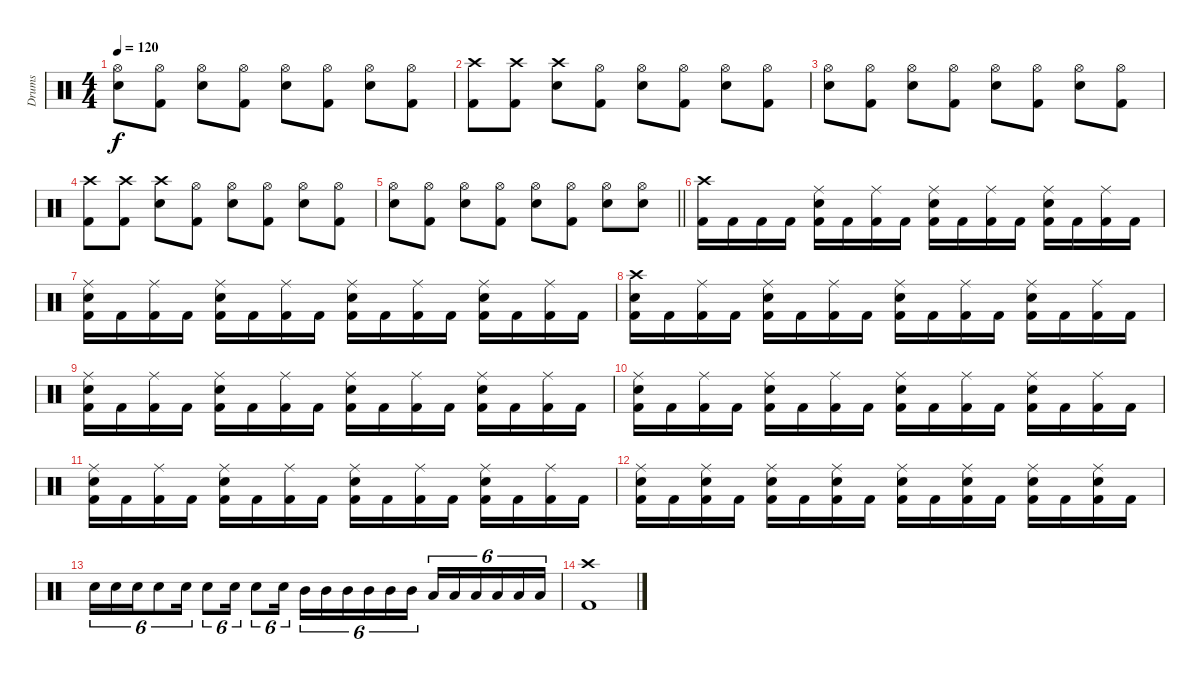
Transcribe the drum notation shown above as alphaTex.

\track ("Drums" "Drums") {instrument percussion}
\staff {score}
\articulation defaults
\ts (4 4)
\tempo 120
\clef neutral
\ks c
("Hi-Hat (open)" "Snare (hit) 2").8{dy f} ("Hi-Hat (open)" "Kick (hit) 2").8 ("Hi-Hat (open)" "Snare (hit) 2").8 ("Hi-Hat (open)" "Kick (hit) 2").8 ("Hi-Hat (open)" "Snare (hit) 2").8 ("Hi-Hat (open)" "Kick (hit) 2").8 ("Hi-Hat (open)" "Snare (hit) 2").8 ("Hi-Hat (open)" "Kick (hit) 2").8 |
("Crash high (hit)" "Kick (hit) 2").8 ("Crash high (hit)" "Kick (hit) 2").8 ("Crash high (hit)" "Snare (hit) 2").8 ("Hi-Hat (open)" "Kick (hit) 2").8 ("Hi-Hat (open)" "Snare (hit) 2").8 ("Hi-Hat (open)" "Kick (hit) 2").8 ("Hi-Hat (open)" "Snare (hit) 2").8 ("Hi-Hat (open)" "Kick (hit) 2").8 |
("Hi-Hat (open)" "Snare (hit) 2").8 ("Hi-Hat (open)" "Kick (hit) 2").8 ("Hi-Hat (open)" "Snare (hit) 2").8 ("Hi-Hat (open)" "Kick (hit) 2").8 ("Hi-Hat (open)" "Snare (hit) 2").8 ("Hi-Hat (open)" "Kick (hit) 2").8 ("Hi-Hat (open)" "Snare (hit) 2").8 ("Hi-Hat (open)" "Kick (hit) 2").8 |
("Crash high (hit)" "Kick (hit) 2").8 ("Crash high (hit)" "Kick (hit) 2").8 ("Crash high (hit)" "Snare (hit) 2").8 ("Hi-Hat (open)" "Kick (hit) 2").8 ("Hi-Hat (open)" "Snare (hit) 2").8 ("Hi-Hat (open)" "Kick (hit) 2").8 ("Hi-Hat (open)" "Snare (hit) 2").8 ("Hi-Hat (open)" "Kick (hit) 2").8 |
\barLineRight lightlight
("Hi-Hat (open)" "Snare (hit) 2").8 ("Hi-Hat (open)" "Kick (hit) 2").8 ("Hi-Hat (open)" "Snare (hit) 2").8 ("Hi-Hat (open)" "Kick (hit) 2").8 ("Hi-Hat (open)" "Snare (hit) 2").8 ("Hi-Hat (open)" "Kick (hit) 2").8 ("Hi-Hat (open)" "Snare (hit) 2").8 ("Hi-Hat (open)" "Snare (hit) 2").8 |
("Crash high (hit)" "Kick (hit) 2").16 "Kick (hit) 2".16 "Kick (hit) 2".16 "Kick (hit) 2".16 ("Ride (middle)" "Snare (hit) 2" "Kick (hit) 2").16 "Kick (hit) 2".16 ("Ride (middle)" "Kick (hit) 2").16 "Kick (hit) 2".16 ("Ride (middle)" "Snare (hit) 2" "Kick (hit) 2").16 "Kick (hit) 2".16 ("Ride (middle)" "Kick (hit) 2").16 "Kick (hit) 2".16 ("Ride (middle)" "Snare (hit) 2" "Kick (hit) 2").16 "Kick (hit) 2".16 ("Ride (middle)" "Kick (hit) 2").16 "Kick (hit) 2".16 |
("Ride (middle)" "Snare (hit) 2" "Kick (hit) 2").16 "Kick (hit) 2".16 ("Ride (middle)" "Kick (hit) 2").16 "Kick (hit) 2".16 ("Ride (middle)" "Snare (hit) 2" "Kick (hit) 2").16 "Kick (hit) 2".16 ("Ride (middle)" "Kick (hit) 2").16 "Kick (hit) 2".16 ("Ride (middle)" "Snare (hit) 2" "Kick (hit) 2").16 "Kick (hit) 2".16 ("Ride (middle)" "Kick (hit) 2").16 "Kick (hit) 2".16 ("Ride (middle)" "Snare (hit) 2" "Kick (hit) 2").16 "Kick (hit) 2".16 ("Ride (middle)" "Kick (hit) 2").16 "Kick (hit) 2".16 |
("Crash high (hit)" "Snare (hit) 2" "Kick (hit) 2").16 "Kick (hit) 2".16 ("Ride (middle)" "Kick (hit) 2").16 "Kick (hit) 2".16 ("Ride (middle)" "Snare (hit) 2" "Kick (hit) 2").16 "Kick (hit) 2".16 ("Ride (middle)" "Kick (hit) 2").16 "Kick (hit) 2".16 ("Ride (middle)" "Snare (hit) 2" "Kick (hit) 2").16 "Kick (hit) 2".16 ("Ride (middle)" "Kick (hit) 2").16 "Kick (hit) 2".16 ("Ride (middle)" "Snare (hit) 2" "Kick (hit) 2").16 "Kick (hit) 2".16 ("Ride (middle)" "Kick (hit) 2").16 "Kick (hit) 2".16 |
("Ride (middle)" "Snare (hit) 2" "Kick (hit) 2").16 "Kick (hit) 2".16 ("Ride (middle)" "Kick (hit) 2").16 "Kick (hit) 2".16 ("Ride (middle)" "Snare (hit) 2" "Kick (hit) 2").16 "Kick (hit) 2".16 ("Ride (middle)" "Kick (hit) 2").16 "Kick (hit) 2".16 ("Ride (middle)" "Snare (hit) 2" "Kick (hit) 2").16 "Kick (hit) 2".16 ("Ride (middle)" "Kick (hit) 2").16 "Kick (hit) 2".16 ("Ride (middle)" "Snare (hit) 2" "Kick (hit) 2").16 "Kick (hit) 2".16 ("Ride (middle)" "Kick (hit) 2").16 "Kick (hit) 2".16 |
("Ride (middle)" "Snare (hit) 2" "Kick (hit) 2").16 "Kick (hit) 2".16 ("Ride (middle)" "Kick (hit) 2").16 "Kick (hit) 2".16 ("Ride (middle)" "Snare (hit) 2" "Kick (hit) 2").16 "Kick (hit) 2".16 ("Ride (middle)" "Kick (hit) 2").16 "Kick (hit) 2".16 ("Ride (middle)" "Snare (hit) 2" "Kick (hit) 2").16 "Kick (hit) 2".16 ("Ride (middle)" "Kick (hit) 2").16 "Kick (hit) 2".16 ("Ride (middle)" "Snare (hit) 2" "Kick (hit) 2").16 "Kick (hit) 2".16 ("Ride (middle)" "Kick (hit) 2").16 "Kick (hit) 2".16 |
("Ride (middle)" "Snare (hit) 2" "Kick (hit) 2").16 "Kick (hit) 2".16 ("Ride (middle)" "Kick (hit) 2").16 "Kick (hit) 2".16 ("Ride (middle)" "Snare (hit) 2" "Kick (hit) 2").16 "Kick (hit) 2".16 ("Ride (middle)" "Kick (hit) 2").16 "Kick (hit) 2".16 ("Ride (middle)" "Snare (hit) 2" "Kick (hit) 2").16 "Kick (hit) 2".16 ("Ride (middle)" "Kick (hit) 2").16 "Kick (hit) 2".16 ("Ride (middle)" "Snare (hit) 2" "Kick (hit) 2").16 "Kick (hit) 2".16 ("Ride (middle)" "Kick (hit) 2").16 "Kick (hit) 2".16 |
("Ride (middle)" "Snare (hit) 2" "Kick (hit) 2").16 "Kick (hit) 2".16 ("Ride (middle)" "Snare (hit) 2" "Kick (hit) 2").16 "Kick (hit) 2".16 ("Ride (middle)" "Snare (hit) 2" "Kick (hit) 2").16 "Kick (hit) 2".16 ("Ride (middle)" "Snare (hit) 2" "Kick (hit) 2").16 "Kick (hit) 2".16 ("Ride (middle)" "Snare (hit) 2" "Kick (hit) 2").16 "Kick (hit) 2".16 ("Ride (middle)" "Snare (hit) 2" "Kick (hit) 2").16 "Kick (hit) 2".16 ("Ride (middle)" "Snare (hit) 2" "Kick (hit) 2").16 "Kick (hit) 2".16 ("Ride (middle)" "Snare (hit) 2" "Kick (hit) 2").16 "Kick (hit) 2".16 |
"Snare (hit) 2".16{tu (6 4)} "Snare (hit) 2".16{tu (6 4)} "Snare (hit) 2".16{tu (6 4)} "Snare (hit) 2".8{tu (6 4)} "Snare (hit) 2".16{tu (6 4)} "Snare (hit) 2".8{tu (6 4)} "Snare (hit) 2".16{tu (6 4)} "Snare (hit) 2".8{tu (6 4)} "Snare (hit) 2".16{tu (6 4)} "Mid Tom (hit)".16{tu (6 4)} "Mid Tom (hit)".16{tu (6 4)} "Mid Tom (hit)".16{tu (6 4)} "Mid Tom (hit)".16{tu (6 4)} "Mid Tom (hit)".16{tu (6 4)} "Mid Tom (hit)".16{tu (6 4)} "Low Floor Tom (hit)".16{tu (6 4)} "Low Floor Tom (hit)".16{tu (6 4)} "Low Floor Tom (hit)".16{tu (6 4)} "Low Floor Tom (hit)".16{tu (6 4)} "Low Floor Tom (hit)".16{tu (6 4)} "Low Floor Tom (hit)".16{tu (6 4)} |
("Crash high (hit)" "Kick (hit) 2").1
